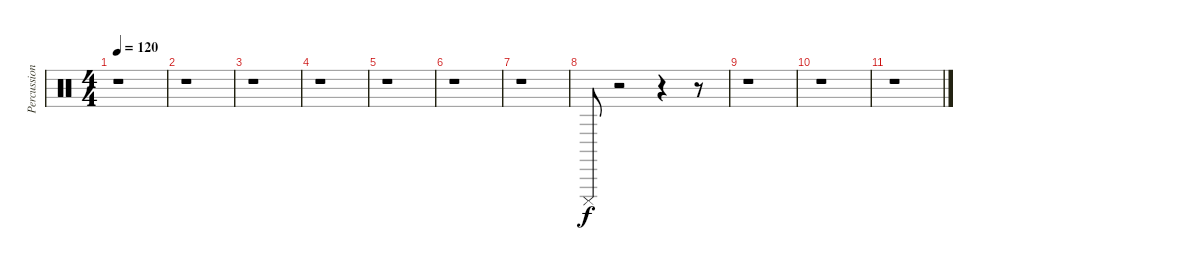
\track ("Percussions" "Percussion") {instrument percussion}
\staff {score}
\articulation defaults
\ts (4 4)
\tempo 120
\clef neutral
\ks c
r.1{dy f} |
r.1 |
r.1 |
r.1 |
r.1 |
r.1 |
r.1 |
"Cuica (mute)".8 r.2 r.4 r.8 |
r.1 |
r.1 |
r.1
